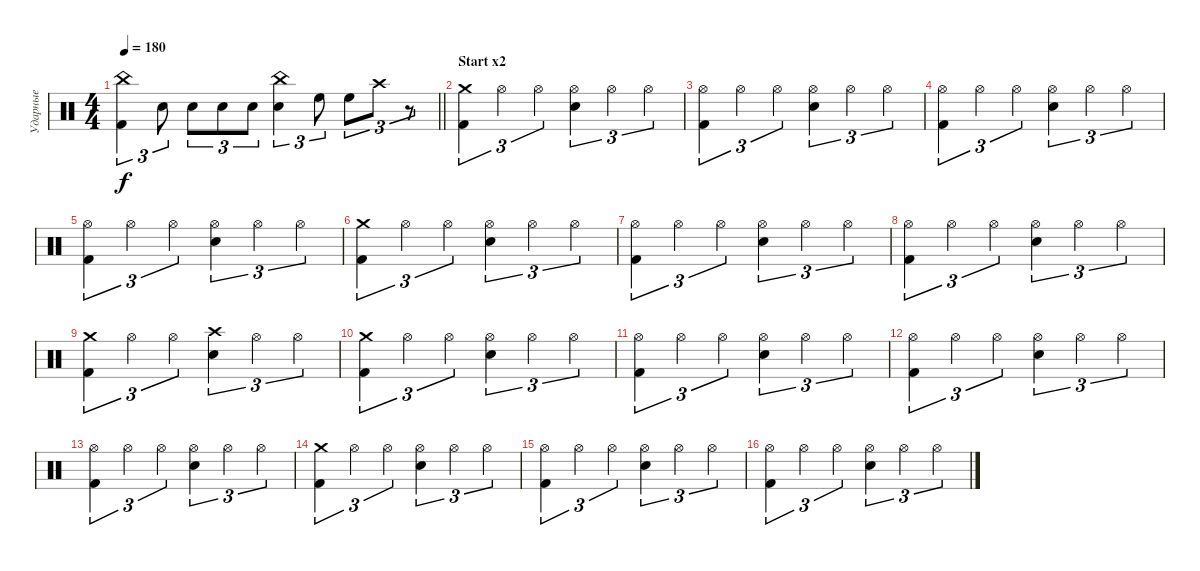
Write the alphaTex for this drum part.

\track ("Ударные" "Ударные") {instrument percussion}
\staff {score}
\articulation defaults
\ts (4 4)
\tempo 180
\clef neutral
\barLineRight lightlight
\ks c
("China (hit)" "Kick (hit) 2").4{tu (3 2) dy f} "Electric Snare (hit)".8{tu (3 2)} "Electric Snare (hit)".8{tu (3 2)} "Electric Snare (hit)".8{tu (3 2)} "Electric Snare (hit)".8{tu (3 2)} ("China (hit)" "Electric Snare (hit)").4{tu (3 2)} "High Floor Tom (hit)".8{tu (3 2)} "High Floor Tom (hit)".8{tu (3 2)} "Crash high (hit)".8{tu (3 2)} r.8{tu (3 2)} |
\section ("" "Start x2")
("Crash medium (hit)" "Kick (hit) 2").4{tu (3 2)} "Hi-Hat (open)".4{tu (3 2)} "Hi-Hat (open)".4{tu (3 2)} ("Hi-Hat (open)" "Electric Snare (hit)").4{tu (3 2)} "Hi-Hat (open)".4{tu (3 2)} "Hi-Hat (open)".4{tu (3 2)} |
("Hi-Hat (open)" "Kick (hit) 2").4{tu (3 2)} "Hi-Hat (open)".4{tu (3 2)} "Hi-Hat (open)".4{tu (3 2)} ("Hi-Hat (open)" "Electric Snare (hit)").4{tu (3 2)} "Hi-Hat (open)".4{tu (3 2)} "Hi-Hat (open)".4{tu (3 2)} |
("Hi-Hat (open)" "Kick (hit) 2").4{tu (3 2)} "Hi-Hat (open)".4{tu (3 2)} "Hi-Hat (open)".4{tu (3 2)} ("Hi-Hat (open)" "Electric Snare (hit)").4{tu (3 2)} "Hi-Hat (open)".4{tu (3 2)} "Hi-Hat (open)".4{tu (3 2)} |
("Hi-Hat (open)" "Kick (hit) 2").4{tu (3 2)} "Hi-Hat (open)".4{tu (3 2)} "Hi-Hat (open)".4{tu (3 2)} ("Electric Snare (hit)" "Hi-Hat (open)").4{tu (3 2)} "Hi-Hat (open)".4{tu (3 2)} "Hi-Hat (open)".4{tu (3 2)} |
("Crash medium (hit)" "Kick (hit) 2").4{tu (3 2)} "Hi-Hat (open)".4{tu (3 2)} "Hi-Hat (open)".4{tu (3 2)} ("Hi-Hat (open)" "Electric Snare (hit)").4{tu (3 2)} "Hi-Hat (open)".4{tu (3 2)} "Hi-Hat (open)".4{tu (3 2)} |
("Hi-Hat (open)" "Kick (hit) 2").4{tu (3 2)} "Hi-Hat (open)".4{tu (3 2)} "Hi-Hat (open)".4{tu (3 2)} ("Hi-Hat (open)" "Electric Snare (hit)").4{tu (3 2)} "Hi-Hat (open)".4{tu (3 2)} "Hi-Hat (open)".4{tu (3 2)} |
("Hi-Hat (open)" "Kick (hit) 2").4{tu (3 2)} "Hi-Hat (open)".4{tu (3 2)} "Hi-Hat (open)".4{tu (3 2)} ("Hi-Hat (open)" "Electric Snare (hit)").4{tu (3 2)} "Hi-Hat (open)".4{tu (3 2)} "Hi-Hat (open)".4{tu (3 2)} |
("Crash medium (hit)" "Kick (hit) 2").4{tu (3 2)} "Hi-Hat (open)".4{tu (3 2)} "Hi-Hat (open)".4{tu (3 2)} ("Crash high (hit)" "Electric Snare (hit)").4{tu (3 2)} "Hi-Hat (open)".4{tu (3 2)} "Hi-Hat (open)".4{tu (3 2)} |
("Crash medium (hit)" "Kick (hit) 2").4{tu (3 2)} "Hi-Hat (open)".4{tu (3 2)} "Hi-Hat (open)".4{tu (3 2)} ("Hi-Hat (open)" "Electric Snare (hit)").4{tu (3 2)} "Hi-Hat (open)".4{tu (3 2)} "Hi-Hat (open)".4{tu (3 2)} |
("Hi-Hat (open)" "Kick (hit) 2").4{tu (3 2)} "Hi-Hat (open)".4{tu (3 2)} "Hi-Hat (open)".4{tu (3 2)} ("Hi-Hat (open)" "Electric Snare (hit)").4{tu (3 2)} "Hi-Hat (open)".4{tu (3 2)} "Hi-Hat (open)".4{tu (3 2)} |
("Hi-Hat (open)" "Kick (hit) 2").4{tu (3 2)} "Hi-Hat (open)".4{tu (3 2)} "Hi-Hat (open)".4{tu (3 2)} ("Hi-Hat (open)" "Electric Snare (hit)").4{tu (3 2)} "Hi-Hat (open)".4{tu (3 2)} "Hi-Hat (open)".4{tu (3 2)} |
("Hi-Hat (open)" "Kick (hit) 2").4{tu (3 2)} "Hi-Hat (open)".4{tu (3 2)} "Hi-Hat (open)".4{tu (3 2)} ("Hi-Hat (open)" "Electric Snare (hit)").4{tu (3 2)} "Hi-Hat (open)".4{tu (3 2)} "Hi-Hat (open)".4{tu (3 2)} |
("Crash medium (hit)" "Kick (hit) 2").4{tu (3 2)} "Hi-Hat (open)".4{tu (3 2)} "Hi-Hat (open)".4{tu (3 2)} ("Hi-Hat (open)" "Electric Snare (hit)").4{tu (3 2)} "Hi-Hat (open)".4{tu (3 2)} "Hi-Hat (open)".4{tu (3 2)} |
("Hi-Hat (open)" "Kick (hit) 2").4{tu (3 2)} "Hi-Hat (open)".4{tu (3 2)} "Hi-Hat (open)".4{tu (3 2)} ("Hi-Hat (open)" "Electric Snare (hit)").4{tu (3 2)} "Hi-Hat (open)".4{tu (3 2)} "Hi-Hat (open)".4{tu (3 2)} |
("Hi-Hat (open)" "Kick (hit) 2").4{tu (3 2)} "Hi-Hat (open)".4{tu (3 2)} "Hi-Hat (open)".4{tu (3 2)} ("Hi-Hat (open)" "Electric Snare (hit)").4{tu (3 2)} "Hi-Hat (open)".4{tu (3 2)} "Hi-Hat (open)".4{tu (3 2)}
